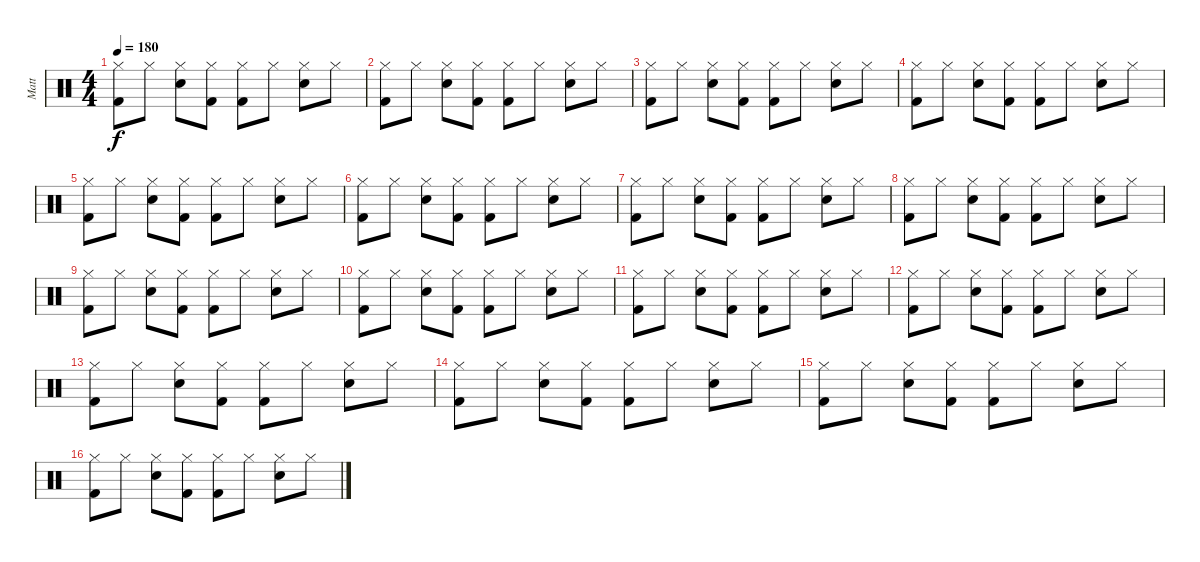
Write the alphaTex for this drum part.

\track ("Matt" "Matt") {instrument percussion}
\staff {score}
\articulation defaults
\ts (4 4)
\tempo 180
\clef neutral
\ks c
("Hi-Hat (closed)" "Kick (hit) 2").8{dy f} "Hi-Hat (closed)".8 ("Hi-Hat (closed)" "Snare (hit) 2").8 ("Hi-Hat (closed)" "Kick (hit) 2").8 ("Hi-Hat (closed)" "Kick (hit) 2").8 "Hi-Hat (closed)".8 ("Hi-Hat (closed)" "Snare (hit) 2").8 "Hi-Hat (closed)".8 |
("Hi-Hat (closed)" "Kick (hit) 2").8 "Hi-Hat (closed)".8 ("Hi-Hat (closed)" "Snare (hit) 2").8 ("Hi-Hat (closed)" "Kick (hit) 2").8 ("Hi-Hat (closed)" "Kick (hit) 2").8 "Hi-Hat (closed)".8 ("Hi-Hat (closed)" "Snare (hit) 2").8 "Hi-Hat (closed)".8 |
("Hi-Hat (closed)" "Kick (hit) 2").8 "Hi-Hat (closed)".8 ("Hi-Hat (closed)" "Snare (hit) 2").8 ("Hi-Hat (closed)" "Kick (hit) 2").8 ("Hi-Hat (closed)" "Kick (hit) 2").8 "Hi-Hat (closed)".8 ("Hi-Hat (closed)" "Snare (hit) 2").8 "Hi-Hat (closed)".8 |
("Hi-Hat (closed)" "Kick (hit) 2").8 "Hi-Hat (closed)".8 ("Hi-Hat (closed)" "Snare (hit) 2").8 ("Hi-Hat (closed)" "Kick (hit) 2").8 ("Hi-Hat (closed)" "Kick (hit) 2").8 "Hi-Hat (closed)".8 ("Hi-Hat (closed)" "Snare (hit) 2").8 "Hi-Hat (closed)".8 |
("Hi-Hat (closed)" "Kick (hit) 2").8 "Hi-Hat (closed)".8 ("Hi-Hat (closed)" "Snare (hit) 2").8 ("Hi-Hat (closed)" "Kick (hit) 2").8 ("Hi-Hat (closed)" "Kick (hit) 2").8 "Hi-Hat (closed)".8 ("Hi-Hat (closed)" "Snare (hit) 2").8 "Hi-Hat (closed)".8 |
("Hi-Hat (closed)" "Kick (hit) 2").8 "Hi-Hat (closed)".8 ("Hi-Hat (closed)" "Snare (hit) 2").8 ("Hi-Hat (closed)" "Kick (hit) 2").8 ("Hi-Hat (closed)" "Kick (hit) 2").8 "Hi-Hat (closed)".8 ("Hi-Hat (closed)" "Snare (hit) 2").8 "Hi-Hat (closed)".8 |
("Hi-Hat (closed)" "Kick (hit) 2").8 "Hi-Hat (closed)".8 ("Hi-Hat (closed)" "Snare (hit) 2").8 ("Hi-Hat (closed)" "Kick (hit) 2").8 ("Hi-Hat (closed)" "Kick (hit) 2").8 "Hi-Hat (closed)".8 ("Hi-Hat (closed)" "Snare (hit) 2").8 "Hi-Hat (closed)".8 |
("Hi-Hat (closed)" "Kick (hit) 2").8 "Hi-Hat (closed)".8 ("Hi-Hat (closed)" "Snare (hit) 2").8 ("Hi-Hat (closed)" "Kick (hit) 2").8 ("Hi-Hat (closed)" "Kick (hit) 2").8 "Hi-Hat (closed)".8 ("Hi-Hat (closed)" "Snare (hit) 2").8 "Hi-Hat (closed)".8 |
("Hi-Hat (closed)" "Kick (hit) 2").8 "Hi-Hat (closed)".8 ("Hi-Hat (closed)" "Snare (hit) 2").8 ("Hi-Hat (closed)" "Kick (hit) 2").8 ("Hi-Hat (closed)" "Kick (hit) 2").8 "Hi-Hat (closed)".8 ("Hi-Hat (closed)" "Snare (hit) 2").8 "Hi-Hat (closed)".8 |
("Hi-Hat (closed)" "Kick (hit) 2").8 "Hi-Hat (closed)".8 ("Hi-Hat (closed)" "Snare (hit) 2").8 ("Hi-Hat (closed)" "Kick (hit) 2").8 ("Hi-Hat (closed)" "Kick (hit) 2").8 "Hi-Hat (closed)".8 ("Hi-Hat (closed)" "Snare (hit) 2").8 "Hi-Hat (closed)".8 |
("Hi-Hat (closed)" "Kick (hit) 2").8 "Hi-Hat (closed)".8 ("Hi-Hat (closed)" "Snare (hit) 2").8 ("Hi-Hat (closed)" "Kick (hit) 2").8 ("Hi-Hat (closed)" "Kick (hit) 2").8 "Hi-Hat (closed)".8 ("Hi-Hat (closed)" "Snare (hit) 2").8 "Hi-Hat (closed)".8 |
("Hi-Hat (closed)" "Kick (hit) 2").8 "Hi-Hat (closed)".8 ("Hi-Hat (closed)" "Snare (hit) 2").8 ("Hi-Hat (closed)" "Kick (hit) 2").8 ("Hi-Hat (closed)" "Kick (hit) 2").8 "Hi-Hat (closed)".8 ("Hi-Hat (closed)" "Snare (hit) 2").8 "Hi-Hat (closed)".8 |
("Hi-Hat (closed)" "Kick (hit) 2").8 "Hi-Hat (closed)".8 ("Hi-Hat (closed)" "Snare (hit) 2").8 ("Hi-Hat (closed)" "Kick (hit) 2").8 ("Hi-Hat (closed)" "Kick (hit) 2").8 "Hi-Hat (closed)".8 ("Hi-Hat (closed)" "Snare (hit) 2").8 "Hi-Hat (closed)".8 |
("Hi-Hat (closed)" "Kick (hit) 2").8 "Hi-Hat (closed)".8 ("Hi-Hat (closed)" "Snare (hit) 2").8 ("Hi-Hat (closed)" "Kick (hit) 2").8 ("Hi-Hat (closed)" "Kick (hit) 2").8 "Hi-Hat (closed)".8 ("Hi-Hat (closed)" "Snare (hit) 2").8 "Hi-Hat (closed)".8 |
("Hi-Hat (closed)" "Kick (hit) 2").8 "Hi-Hat (closed)".8 ("Hi-Hat (closed)" "Snare (hit) 2").8 ("Hi-Hat (closed)" "Kick (hit) 2").8 ("Hi-Hat (closed)" "Kick (hit) 2").8 "Hi-Hat (closed)".8 ("Hi-Hat (closed)" "Snare (hit) 2").8 "Hi-Hat (closed)".8 |
("Hi-Hat (closed)" "Kick (hit) 2").8 "Hi-Hat (closed)".8 ("Hi-Hat (closed)" "Snare (hit) 2").8 ("Hi-Hat (closed)" "Kick (hit) 2").8 ("Hi-Hat (closed)" "Kick (hit) 2").8 "Hi-Hat (closed)".8 ("Hi-Hat (closed)" "Snare (hit) 2").8 "Hi-Hat (closed)".8
